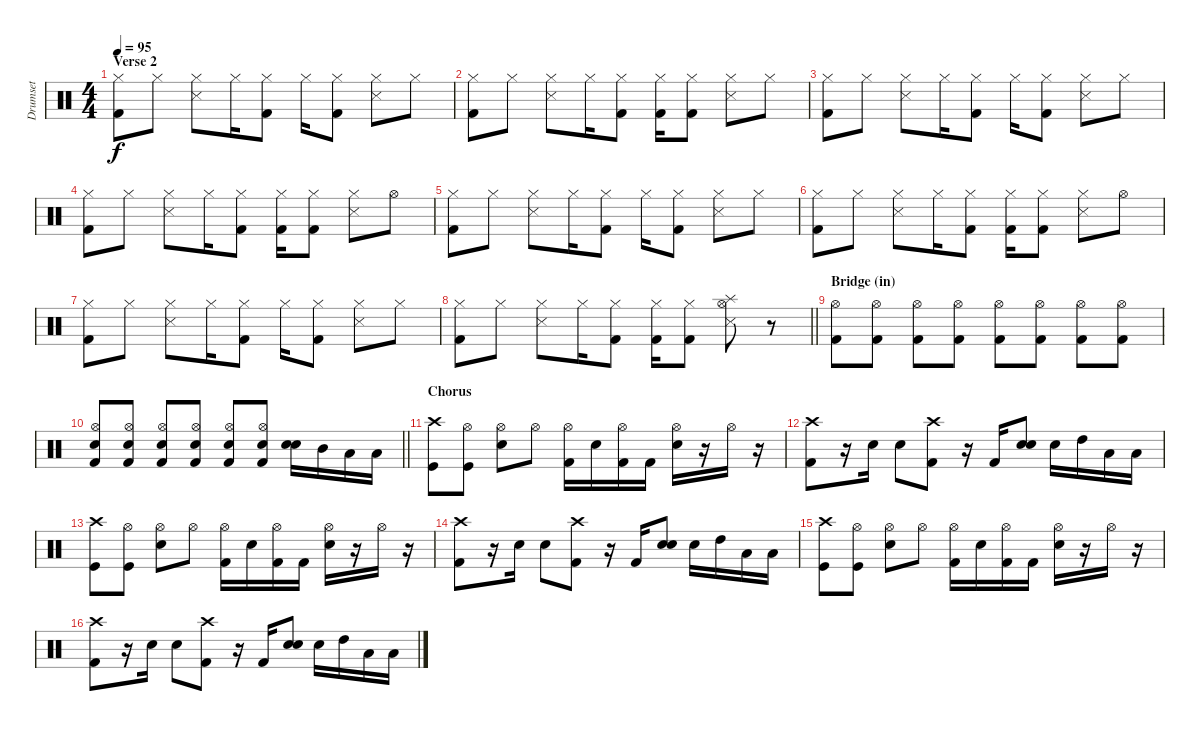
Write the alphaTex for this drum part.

\track ("Drumset" "Drumset") {solo instrument percussion}
\staff {score}
\articulation defaults
\ts (4 4)
\section ("" "Verse 2")
\tempo 95
\clef neutral
\ks c
("Hi-Hat (closed)" "Kick (hit) 2").8{dy f} "Hi-Hat (closed)".8 ("Hi-Hat (closed)" "Snare (side stick) 3").8 "Hi-Hat (closed)".16 ("Hi-Hat (closed)" "Kick (hit) 2").8 "Hi-Hat (closed)".16 ("Hi-Hat (closed)" "Kick (hit) 2").8 ("Hi-Hat (closed)" "Snare (side stick) 3").8 "Hi-Hat (closed)".8 |
("Hi-Hat (closed)" "Kick (hit) 2").8 "Hi-Hat (closed)".8 ("Hi-Hat (closed)" "Snare (side stick) 3").8 "Hi-Hat (closed)".16 ("Hi-Hat (closed)" "Kick (hit) 2").8 ("Hi-Hat (closed)" "Kick (hit) 2").16 ("Hi-Hat (closed)" "Kick (hit) 2").8 ("Hi-Hat (closed)" "Snare (side stick) 3").8 "Hi-Hat (closed)".8 |
("Hi-Hat (closed)" "Kick (hit) 2").8 "Hi-Hat (closed)".8 ("Hi-Hat (closed)" "Snare (side stick) 3").8 "Hi-Hat (closed)".16 ("Hi-Hat (closed)" "Kick (hit) 2").8 "Hi-Hat (closed)".16 ("Hi-Hat (closed)" "Kick (hit) 2").8 ("Hi-Hat (closed)" "Snare (side stick) 3").8 "Hi-Hat (closed)".8 |
("Hi-Hat (closed)" "Kick (hit) 2").8 "Hi-Hat (closed)".8 ("Hi-Hat (closed)" "Snare (side stick) 3").8 "Hi-Hat (closed)".16 ("Hi-Hat (closed)" "Kick (hit) 2").8 ("Hi-Hat (closed)" "Kick (hit) 2").16 ("Hi-Hat (closed)" "Kick (hit) 2").8 ("Hi-Hat (closed)" "Snare (side stick) 3").8 "Hi-Hat (open)".8 |
("Hi-Hat (closed)" "Kick (hit) 2").8 "Hi-Hat (closed)".8 ("Hi-Hat (closed)" "Snare (side stick) 3").8 "Hi-Hat (closed)".16 ("Hi-Hat (closed)" "Kick (hit) 2").8 "Hi-Hat (closed)".16 ("Hi-Hat (closed)" "Kick (hit) 2").8 ("Hi-Hat (closed)" "Snare (side stick) 3").8 "Hi-Hat (closed)".8 |
("Hi-Hat (closed)" "Kick (hit) 2").8 "Hi-Hat (closed)".8 ("Hi-Hat (closed)" "Snare (side stick) 3").8 "Hi-Hat (closed)".16 ("Hi-Hat (closed)" "Kick (hit) 2").8 ("Hi-Hat (closed)" "Kick (hit) 2").16 ("Hi-Hat (closed)" "Kick (hit) 2").8 ("Hi-Hat (closed)" "Snare (side stick) 3").8 "Hi-Hat (open)".8 |
("Hi-Hat (closed)" "Kick (hit) 2").8 "Hi-Hat (closed)".8 ("Hi-Hat (closed)" "Snare (side stick) 3").8 "Hi-Hat (closed)".16 ("Hi-Hat (closed)" "Kick (hit) 2").8 "Hi-Hat (closed)".16 ("Hi-Hat (closed)" "Kick (hit) 2").8 ("Hi-Hat (closed)" "Snare (side stick) 3").8 "Hi-Hat (closed)".8 |
\barLineRight lightlight
("Hi-Hat (closed)" "Kick (hit) 2").8 "Hi-Hat (closed)".8 ("Hi-Hat (closed)" "Snare (side stick) 3").8 "Hi-Hat (closed)".16 ("Hi-Hat (closed)" "Kick (hit) 2").8 ("Hi-Hat (closed)" "Kick (hit) 2").16 ("Hi-Hat (closed)" "Kick (hit) 2").8 ("Hi-Hat (open)" "Splash (hit)" "Snare (side stick) 3").8 r.8 |
\section ("" "Bridge (in)")
("Hi-Hat (open)" "Kick (hit) 2").8 ("Hi-Hat (open)" "Kick (hit) 2").8 ("Hi-Hat (open)" "Kick (hit) 2").8 ("Hi-Hat (open)" "Kick (hit) 2").8 ("Hi-Hat (open)" "Kick (hit) 2").8 ("Hi-Hat (open)" "Kick (hit) 2").8 ("Hi-Hat (open)" "Kick (hit) 2").8 ("Hi-Hat (open)" "Kick (hit) 2").8 |
\barLineRight lightlight
("Hi-Hat (open)" "Snare (hit) 2" "Kick (hit) 2").8 ("Hi-Hat (open)" "Snare (hit) 2" "Kick (hit) 2").8 ("Hi-Hat (open)" "Snare (hit) 2" "Kick (hit) 2").8 ("Hi-Hat (open)" "Snare (hit) 2" "Kick (hit) 2").8 ("Hi-Hat (open)" "Snare (hit) 2" "Kick (hit) 2").8 ("Hi-Hat (open)" "Snare (hit) 2" "Kick (hit) 2").8 ("Snare (hit) 2" "Snare (hit) 2").16 "Mid Tom (hit)".16 "Low Tom (hit)".16 "Low Floor Tom (hit)".16 |
\section ("" "Chorus")
("Crash high (hit)" "Kick (hit)").8 ("Hi-Hat (open)" "Kick (hit)").8 ("Hi-Hat (open)" "Snare (hit) 2").8 "Hi-Hat (open)".8 ("Hi-Hat (open)" "Kick (hit) 2").16 "Snare (hit) 2".16 ("Hi-Hat (open)" "Kick (hit) 2").16 "Kick (hit) 2".16 ("Hi-Hat (open)" "Snare (hit) 2").16 r.16 "Hi-Hat (open)".16 r.16 |
("Crash high (hit)" "Kick (hit) 2").8 r.16 "Snare (hit) 2".16 "Snare (hit) 2".8 ("Crash high (hit)" "Kick (hit) 2").8 r.16 "Kick (hit) 2".16 ("Snare (hit) 2" "Snare (hit) 2").8 "Snare (hit) 2".16 "High Tom (hit)".16 "Low Tom (hit)".16 "Low Floor Tom (hit)".16 |
("Crash high (hit)" "Kick (hit)").8 ("Hi-Hat (open)" "Kick (hit)").8 ("Hi-Hat (open)" "Snare (hit) 2").8 "Hi-Hat (open)".8 ("Hi-Hat (open)" "Kick (hit) 2").16 "Snare (hit) 2".16 ("Hi-Hat (open)" "Kick (hit) 2").16 "Kick (hit) 2".16 ("Hi-Hat (open)" "Snare (hit) 2").16 r.16 "Hi-Hat (open)".16 r.16 |
("Crash high (hit)" "Kick (hit) 2").8 r.16 "Snare (hit) 2".16 "Snare (hit) 2".8 ("Crash high (hit)" "Kick (hit) 2").8 r.16 "Kick (hit) 2".16 ("Snare (hit) 2" "Snare (hit) 2").8 "Snare (hit) 2".16 "High Tom (hit)".16 "Low Tom (hit)".16 "Low Floor Tom (hit)".16 |
("Crash high (hit)" "Kick (hit)").8 ("Hi-Hat (open)" "Kick (hit)").8 ("Hi-Hat (open)" "Snare (hit) 2").8 "Hi-Hat (open)".8 ("Hi-Hat (open)" "Kick (hit) 2").16 "Snare (hit) 2".16 ("Hi-Hat (open)" "Kick (hit) 2").16 "Kick (hit) 2".16 ("Hi-Hat (open)" "Snare (hit) 2").16 r.16 "Hi-Hat (open)".16 r.16 |
("Crash high (hit)" "Kick (hit) 2").8 r.16 "Snare (hit) 2".16 "Snare (hit) 2".8 ("Crash high (hit)" "Kick (hit) 2").8 r.16 "Kick (hit) 2".16 ("Snare (hit) 2" "Snare (hit) 2").8 "Snare (hit) 2".16 "High Tom (hit)".16 "Low Tom (hit)".16 "Low Floor Tom (hit)".16
